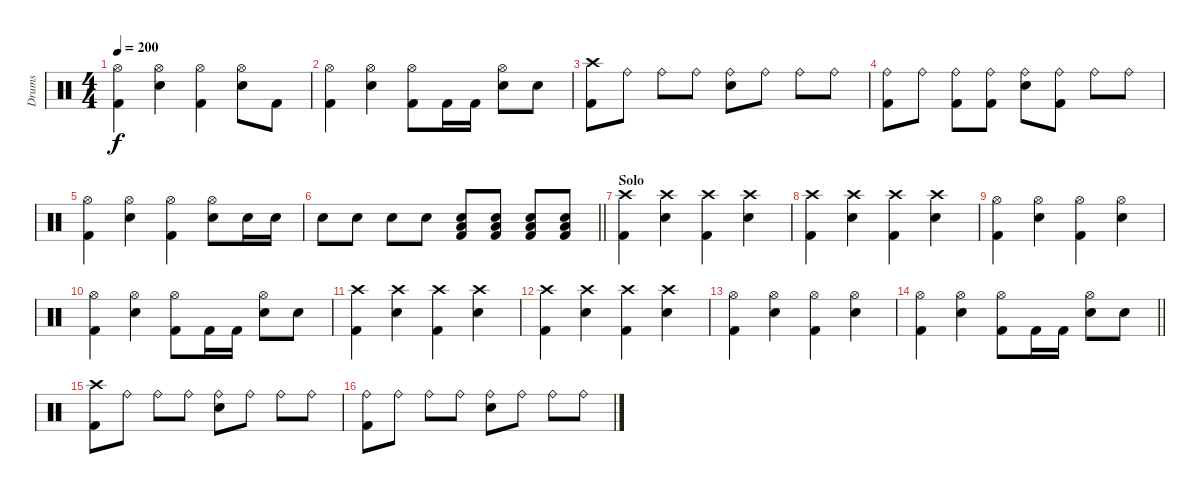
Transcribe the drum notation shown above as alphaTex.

\track ("Drums" "Drums") {instrument percussion}
\staff {score}
\articulation defaults
\ts (4 4)
\tempo 200
\clef neutral
\ks c
("Hi-Hat (open)" "Kick (hit) 2").4{dy f} ("Hi-Hat (open)" "Snare (hit) 2").4 ("Hi-Hat (open)" "Kick (hit) 2").4 ("Hi-Hat (open)" "Snare (hit) 2").8 "Kick (hit) 2".8 |
("Hi-Hat (open)" "Kick (hit) 2").4 ("Hi-Hat (open)" "Snare (hit) 2").4 ("Hi-Hat (open)" "Kick (hit) 2").8 "Kick (hit) 2".16 "Kick (hit) 2".16 ("Hi-Hat (open)" "Snare (hit) 2").8 "Snare (hit) 2".8 |
("Crash high (hit)" "Kick (hit) 2").8 "Ride (bell)".8 "Ride (bell)".8 "Ride (bell)".8 ("Ride (bell)" "Snare (hit) 2").8 "Ride (bell)".8 "Ride (bell)".8 "Ride (bell)".8 |
("Ride (bell)" "Kick (hit) 2").8 "Ride (bell)".8 ("Ride (bell)" "Kick (hit) 2").8 ("Ride (bell)" "Kick (hit) 2").8 ("Ride (bell)" "Snare (hit) 2").8 ("Ride (bell)" "Kick (hit) 2").8 "Ride (bell)".8 "Ride (bell)".8 |
("Hi-Hat (open)" "Kick (hit) 2").4 ("Hi-Hat (open)" "Snare (hit) 2").4 ("Hi-Hat (open)" "Kick (hit) 2").4 ("Hi-Hat (open)" "Snare (hit) 2").8 "Snare (hit) 2".16 "Snare (hit) 2".16 |
\barLineRight lightlight "Snare (hit) 2".8 "Snare (hit) 2".8 "Snare (hit) 2".8 "Snare (hit) 2".8
("Low Floor Tom (hit)" "Snare (hit) 2" "Kick (hit) 2").8 ("Low Floor Tom (hit)" "Snare (hit) 2" "Kick (hit) 2").8 ("Low Floor Tom (hit)" "Snare (hit) 2" "Kick (hit) 2").8 ("Low Floor Tom (hit)" "Snare (hit) 2" "Kick (hit) 2").8 |
\section ("" "Solo")
("Crash high (hit)" "Kick (hit) 2").4 ("Crash high (hit)" "Snare (hit) 2").4 ("Crash high (hit)" "Kick (hit) 2").4 ("Crash high (hit)" "Snare (hit) 2").4 |
("Crash high (hit)" "Kick (hit) 2").4 ("Crash high (hit)" "Snare (hit) 2").4 ("Crash high (hit)" "Kick (hit) 2").4 ("Crash high (hit)" "Snare (hit) 2").4 |
("Hi-Hat (open)" "Kick (hit) 2").4 ("Hi-Hat (open)" "Snare (hit) 2").4 ("Hi-Hat (open)" "Kick (hit) 2").4 ("Hi-Hat (open)" "Snare (hit) 2").4 |
("Hi-Hat (open)" "Kick (hit) 2").4 ("Hi-Hat (open)" "Snare (hit) 2").4 ("Hi-Hat (open)" "Kick (hit) 2").8 "Kick (hit) 2".16 "Kick (hit) 2".16 ("Hi-Hat (open)" "Snare (hit) 2").8 "Snare (hit) 2".8 |
("Crash high (hit)" "Kick (hit) 2").4 ("Crash high (hit)" "Snare (hit) 2").4 ("Crash high (hit)" "Kick (hit) 2").4 ("Crash high (hit)" "Snare (hit) 2").4 |
("Crash high (hit)" "Kick (hit) 2").4 ("Crash high (hit)" "Snare (hit) 2").4 ("Crash high (hit)" "Kick (hit) 2").4 ("Crash high (hit)" "Snare (hit) 2").4 |
("Hi-Hat (open)" "Kick (hit) 2").4 ("Hi-Hat (open)" "Snare (hit) 2").4 ("Hi-Hat (open)" "Kick (hit) 2").4 ("Hi-Hat (open)" "Snare (hit) 2").4 |
\barLineRight lightlight
("Hi-Hat (open)" "Kick (hit) 2").4 ("Hi-Hat (open)" "Snare (hit) 2").4 ("Hi-Hat (open)" "Kick (hit) 2").8 "Kick (hit) 2".16 "Kick (hit) 2".16 ("Hi-Hat (open)" "Snare (hit) 2").8 "Snare (hit) 2".8 |
("Crash high (hit)" "Kick (hit) 2").8 "Ride (bell)".8 "Ride (bell)".8 "Ride (bell)".8 ("Ride (bell)" "Snare (hit) 2").8 "Ride (bell)".8 "Ride (bell)".8 "Ride (bell)".8 |
("Ride (bell)" "Kick (hit) 2").8 "Ride (bell)".8 "Ride (bell)".8 "Ride (bell)".8 ("Ride (bell)" "Snare (hit) 2").8 "Ride (bell)".8 "Ride (bell)".8 "Ride (bell)".8
